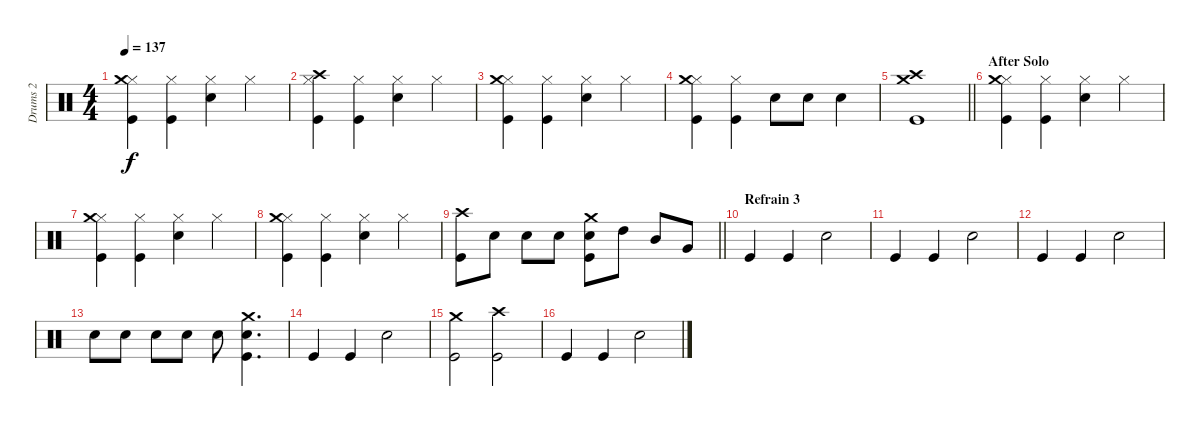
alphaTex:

\track ("Drums 2" "Drums 2") {instrument percussion}
\staff {score}
\articulation defaults
\ts (4 4)
\tempo 137
\clef neutral
\ks c
("Hi-Hat (closed)" "Crash medium (hit)" "Kick (hit)").4{dy f} ("Hi-Hat (closed)" "Kick (hit)").4 ("Hi-Hat (closed)" "Snare (hit) 2").4 "Hi-Hat (closed)".4 |
("Hi-Hat (closed)" "Crash high (hit)" "Kick (hit)").4 ("Hi-Hat (closed)" "Kick (hit)").4 ("Hi-Hat (closed)" "Snare (hit) 2").4 "Hi-Hat (closed)".4 |
("Hi-Hat (closed)" "Crash medium (hit)" "Kick (hit)").4 ("Hi-Hat (closed)" "Kick (hit)").4 ("Hi-Hat (closed)" "Snare (hit) 2").4 "Hi-Hat (closed)".4 |
("Hi-Hat (closed)" "Crash medium (hit)" "Kick (hit)").4 ("Hi-Hat (closed)" "Kick (hit)").4 "Snare (hit) 2".8 "Snare (hit) 2".8 "Snare (hit) 2".4 |
\barLineRight lightlight
("Crash medium (hit)" "Crash high (hit)" "Kick (hit)").1 |
\section ("" "After Solo")
("Hi-Hat (closed)" "Crash medium (hit)" "Kick (hit)").4 ("Hi-Hat (closed)" "Kick (hit)").4 ("Hi-Hat (closed)" "Snare (hit) 2").4 "Hi-Hat (closed)".4 |
("Hi-Hat (closed)" "Crash medium (hit)" "Kick (hit)").4 ("Hi-Hat (closed)" "Kick (hit)").4 ("Hi-Hat (closed)" "Snare (hit) 2").4 "Hi-Hat (closed)".4 |
("Hi-Hat (closed)" "Crash medium (hit)" "Kick (hit)").4 ("Hi-Hat (closed)" "Kick (hit)").4 ("Hi-Hat (closed)" "Snare (hit) 2").4 "Hi-Hat (closed)".4 |
\barLineRight lightlight
("Crash high (hit)" "Kick (hit)").8 "Snare (hit) 2".8 "Snare (hit) 2".8 "Snare (hit) 2".8 ("Crash medium (hit)" "Snare (hit) 2" "Kick (hit)").8 "High Tom (hit)".8 "Mid Tom (hit)".8 "Very Low Tom (hit)".8 |
\section ("" "Refrain 3")
"Kick (hit)".4 "Kick (hit)".4 "Snare (hit) 2".2 |
"Kick (hit)".4 "Kick (hit)".4 "Snare (hit) 2".2 |
"Kick (hit)".4 "Kick (hit)".4 "Snare (hit) 2".2 |
"Snare (hit) 2".8 "Snare (hit) 2".8 "Snare (hit) 2".8 "Snare (hit) 2".8 "Snare (hit) 2".8 ("Crash medium (hit)" "Snare (hit) 2" "Kick (hit)").4{d} |
"Kick (hit)".4 "Kick (hit)".4 "Snare (hit) 2".2 |
("Crash medium (hit)" "Kick (hit)").2 ("Crash high (hit)" "Kick (hit)").2 |
"Kick (hit)".4 "Kick (hit)".4 "Snare (hit) 2".2
